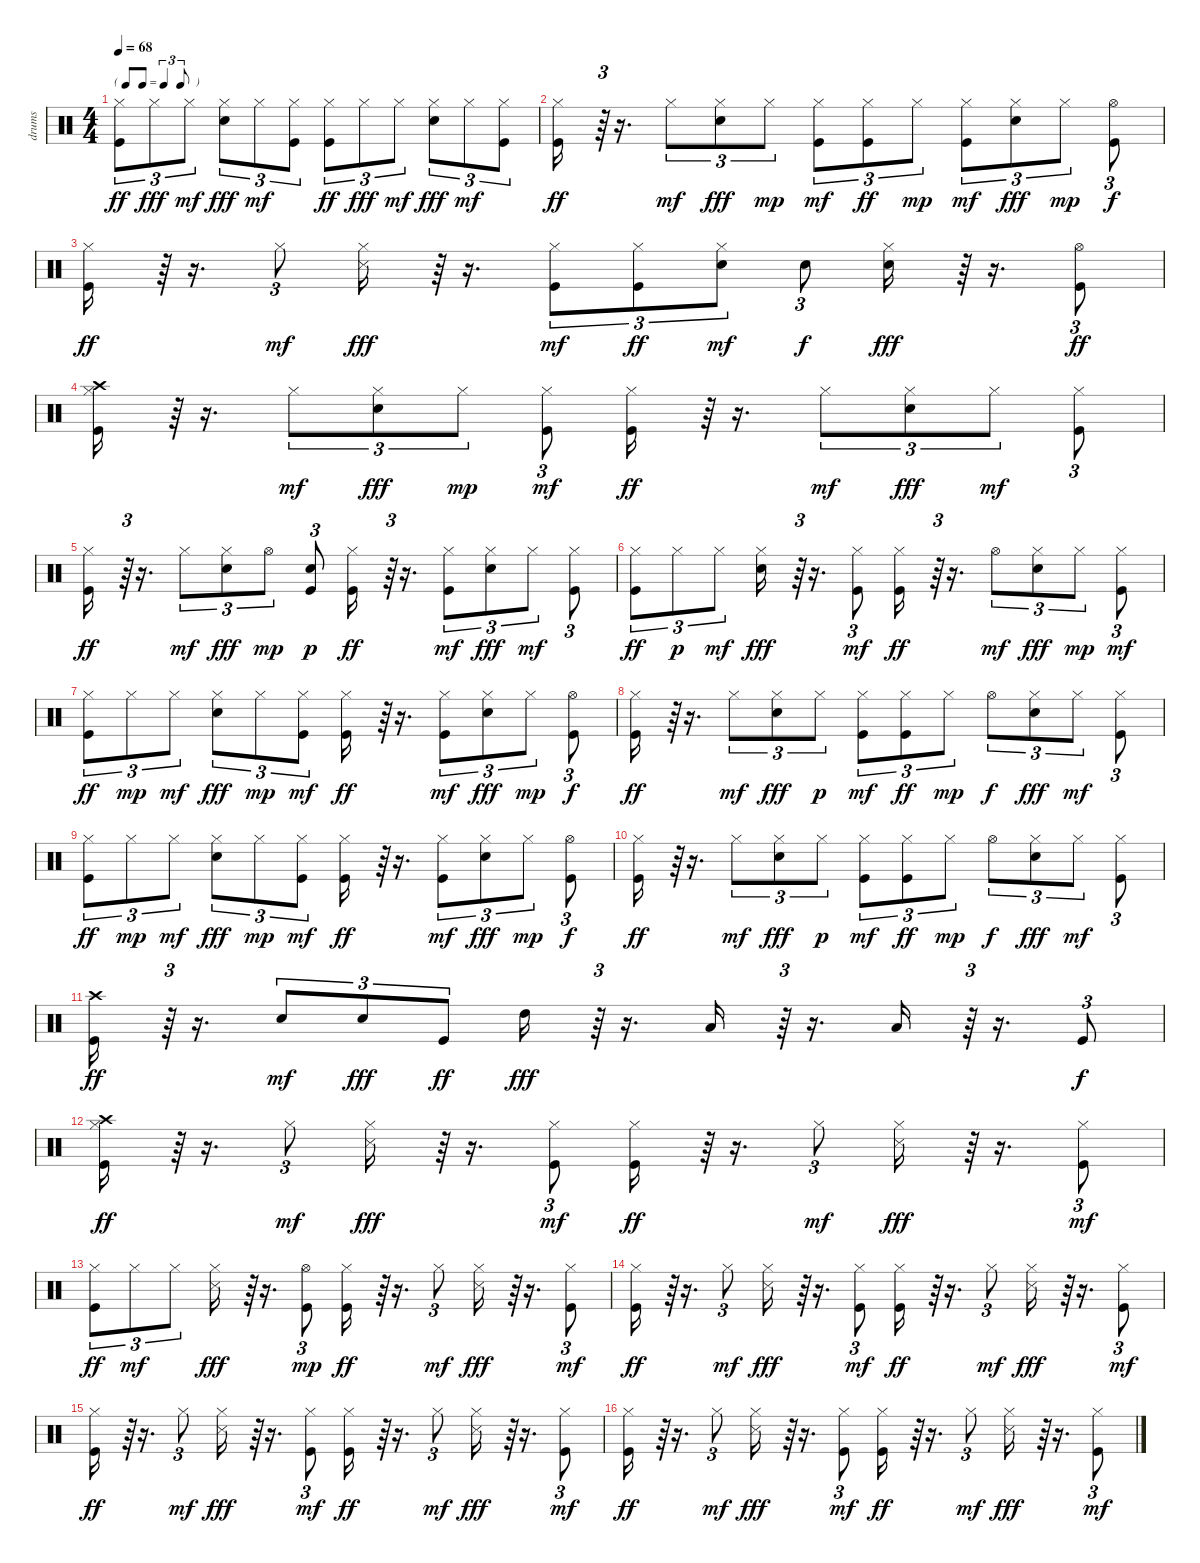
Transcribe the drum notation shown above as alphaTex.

\track ("drums" "drums") {instrument percussion}
\staff {score}
\articulation defaults
\ts (4 4)
\tf triplet8th
\tempo 68
\clef neutral
\ks c
("Kick (hit)" "Hi-Hat (closed)").8{tu (3 2) dy ff} "Hi-Hat (closed)".8{tu (3 2) dy fff} "Hi-Hat (closed)".8{tu (3 2) dy mf} ("Snare (hit) 2" "Hi-Hat (closed)").8{tu (3 2) dy fff} "Hi-Hat (closed)".8{tu (3 2) dy mf} ("Kick (hit)" "Hi-Hat (closed)").8{tu (3 2)} ("Kick (hit)" "Hi-Hat (closed)").8{tu (3 2) dy ff} "Hi-Hat (closed)".8{tu (3 2) dy fff} "Hi-Hat (closed)".8{tu (3 2) dy mf} ("Snare (hit) 2" "Hi-Hat (closed)").8{tu (3 2) dy fff} "Hi-Hat (closed)".8{tu (3 2) dy mf} ("Kick (hit)" "Hi-Hat (closed)").8{tu (3 2)} |
("Kick (hit)" "Hi-Hat (closed)").16{dy ff} r.64{tu (3 2)} r.16{d} "Hi-Hat (closed)".8{tu (3 2) dy mf} ("Snare (hit) 2" "Hi-Hat (closed)").8{tu (3 2) dy fff} "Hi-Hat (closed)".8{tu (3 2) dy mp} ("Kick (hit)" "Hi-Hat (closed)").8{tu (3 2) dy mf} ("Kick (hit)" "Hi-Hat (closed)").8{tu (3 2) dy ff} "Hi-Hat (closed)".8{tu (3 2) dy mp} ("Kick (hit)" "Hi-Hat (closed)").8{tu (3 2) dy mf} ("Snare (hit) 2" "Hi-Hat (closed)").8{tu (3 2) dy fff} "Hi-Hat (closed)".8{tu (3 2) dy mp} ("Kick (hit)" "Hi-Hat (open)").8{tu (3 2) dy f} |
("Kick (hit)" "Hi-Hat (closed)").16{dy ff} r.64{tu (3 2)} r.16{d} "Hi-Hat (closed)".8{tu (3 2) dy mf} ("Hi-Hat (closed)" "Snare (side stick) 3").16{dy fff} r.64{tu (3 2)} r.16{d} ("Kick (hit)" "Hi-Hat (closed)").8{tu (3 2) dy mf} ("Kick (hit)" "Hi-Hat (closed)").8{tu (3 2) dy ff} ("Snare (hit) 2" "Hi-Hat (closed)").8{tu (3 2) dy mf} "Snare (hit) 2".8{tu (3 2) dy f} ("Snare (hit) 2" "Hi-Hat (closed)").16{dy fff} r.64{tu (3 2)} r.16{d} ("Kick (hit)" "Hi-Hat (open)").8{tu (3 2) dy ff} |
("Kick (hit)" "Hi-Hat (closed)" "Crash high (hit)").16 r.64{tu (3 2)} r.16{d} "Hi-Hat (closed)".8{tu (3 2) dy mf} ("Snare (hit) 2" "Hi-Hat (closed)").8{tu (3 2) dy fff} "Hi-Hat (closed)".8{tu (3 2) dy mp} ("Kick (hit)" "Hi-Hat (closed)").8{tu (3 2) dy mf} ("Kick (hit)" "Hi-Hat (closed)").16{dy ff} r.64{tu (3 2)} r.16{d} "Hi-Hat (closed)".8{tu (3 2) dy mf} ("Snare (hit) 2" "Hi-Hat (closed)").8{tu (3 2) dy fff} "Hi-Hat (closed)".8{tu (3 2) dy mf} ("Kick (hit)" "Hi-Hat (closed)").8{tu (3 2)} |
("Kick (hit)" "Hi-Hat (closed)").16{dy ff} r.64{tu (3 2)} r.16{d} "Hi-Hat (closed)".8{tu (3 2) dy mf} ("Snare (hit) 2" "Hi-Hat (closed)").8{tu (3 2) dy fff} "Hi-Hat (open)".8{tu (3 2) dy mp} ("Kick (hit)" "Snare (hit) 2").8{tu (3 2) dy p} ("Kick (hit)" "Hi-Hat (closed)").16{dy ff} r.64{tu (3 2)} r.16{d} ("Kick (hit)" "Hi-Hat (closed)").8{tu (3 2) dy mf} ("Snare (hit) 2" "Hi-Hat (closed)").8{tu (3 2) dy fff} "Hi-Hat (closed)".8{tu (3 2) dy mf} ("Kick (hit)" "Hi-Hat (closed)").8{tu (3 2)} |
("Kick (hit)" "Hi-Hat (closed)").8{tu (3 2) dy ff} "Hi-Hat (closed)".8{tu (3 2) dy p} "Hi-Hat (closed)".8{tu (3 2) dy mf} ("Snare (hit) 2" "Hi-Hat (closed)").16{dy fff} r.64{tu (3 2)} r.16{d} ("Kick (hit)" "Hi-Hat (closed)").8{tu (3 2) dy mf} ("Kick (hit)" "Hi-Hat (closed)").16{dy ff} r.64{tu (3 2)} r.16{d} "Hi-Hat (open)".8{tu (3 2) dy mf} ("Snare (hit) 2" "Hi-Hat (closed)").8{tu (3 2) dy fff} "Hi-Hat (closed)".8{tu (3 2) dy mp} ("Kick (hit)" "Hi-Hat (closed)").8{tu (3 2) dy mf} |
("Kick (hit)" "Hi-Hat (closed)").8{tu (3 2) dy ff} "Hi-Hat (closed)".8{tu (3 2) dy mp} "Hi-Hat (closed)".8{tu (3 2) dy mf} ("Snare (hit) 2" "Hi-Hat (closed)").8{tu (3 2) dy fff} "Hi-Hat (closed)".8{tu (3 2) dy mp} ("Kick (hit)" "Hi-Hat (closed)").8{tu (3 2) dy mf} ("Kick (hit)" "Hi-Hat (closed)").16{dy ff} r.64{tu (3 2)} r.16{d} ("Kick (hit)" "Hi-Hat (closed)").8{tu (3 2) dy mf} ("Snare (hit) 2" "Hi-Hat (closed)").8{tu (3 2) dy fff} "Hi-Hat (closed)".8{tu (3 2) dy mp} ("Kick (hit)" "Hi-Hat (open)").8{tu (3 2) dy f} |
("Kick (hit)" "Hi-Hat (closed)").16{dy ff} r.64{tu (3 2)} r.16{d} "Hi-Hat (closed)".8{tu (3 2) dy mf} ("Snare (hit) 2" "Hi-Hat (closed)").8{tu (3 2) dy fff} "Hi-Hat (closed)".8{tu (3 2) dy p} ("Kick (hit)" "Hi-Hat (closed)").8{tu (3 2) dy mf} ("Kick (hit)" "Hi-Hat (closed)").8{tu (3 2) dy ff} "Hi-Hat (closed)".8{tu (3 2) dy mp} "Hi-Hat (open)".8{tu (3 2) dy f} ("Snare (hit) 2" "Hi-Hat (closed)").8{tu (3 2) dy fff} "Hi-Hat (closed)".8{tu (3 2) dy mf} ("Kick (hit)" "Hi-Hat (closed)").8{tu (3 2)} |
("Kick (hit)" "Hi-Hat (closed)").8{tu (3 2) dy ff} "Hi-Hat (closed)".8{tu (3 2) dy mp} "Hi-Hat (closed)".8{tu (3 2) dy mf} ("Snare (hit) 2" "Hi-Hat (closed)").8{tu (3 2) dy fff} "Hi-Hat (closed)".8{tu (3 2) dy mp} ("Kick (hit)" "Hi-Hat (closed)").8{tu (3 2) dy mf} ("Kick (hit)" "Hi-Hat (closed)").16{dy ff} r.64{tu (3 2)} r.16{d} ("Kick (hit)" "Hi-Hat (closed)").8{tu (3 2) dy mf} ("Snare (hit) 2" "Hi-Hat (closed)").8{tu (3 2) dy fff} "Hi-Hat (closed)".8{tu (3 2) dy mp} ("Kick (hit)" "Hi-Hat (open)").8{tu (3 2) dy f} |
("Kick (hit)" "Hi-Hat (closed)").16{dy ff} r.64{tu (3 2)} r.16{d} "Hi-Hat (closed)".8{tu (3 2) dy mf} ("Snare (hit) 2" "Hi-Hat (closed)").8{tu (3 2) dy fff} "Hi-Hat (closed)".8{tu (3 2) dy p} ("Kick (hit)" "Hi-Hat (closed)").8{tu (3 2) dy mf} ("Kick (hit)" "Hi-Hat (closed)").8{tu (3 2) dy ff} "Hi-Hat (closed)".8{tu (3 2) dy mp} "Hi-Hat (open)".8{tu (3 2) dy f} ("Snare (hit) 2" "Hi-Hat (closed)").8{tu (3 2) dy fff} "Hi-Hat (closed)".8{tu (3 2) dy mf} ("Kick (hit)" "Hi-Hat (closed)").8{tu (3 2)} |
("Kick (hit)" "Crash high (hit)").16{dy ff} r.64{tu (3 2)} r.16{d} "Snare (hit) 2".8{tu (3 2) dy mf} "Snare (hit) 2".8{tu (3 2) dy fff} "Kick (hit)".8{tu (3 2) dy ff} "High Tom (hit)".16{dy fff} r.64{tu (3 2)} r.16{d} "Low Tom (hit)".16 r.64{tu (3 2)} r.16{d} "Low Floor Tom (hit)".16 r.64{tu (3 2)} r.16{d} "Kick (hit)".8{tu (3 2) dy f} |
("Kick (hit)" "Hi-Hat (closed)" "Crash high (hit)").16{dy ff} r.64{tu (3 2)} r.16{d} "Hi-Hat (closed)".8{tu (3 2) dy mf} ("Hi-Hat (closed)" "Snare (side stick) 3").16{dy fff} r.64{tu (3 2)} r.16{d} ("Kick (hit)" "Hi-Hat (closed)").8{tu (3 2) dy mf} ("Kick (hit)" "Hi-Hat (closed)").16{dy ff} r.64{tu (3 2)} r.16{d} "Hi-Hat (closed)".8{tu (3 2) dy mf} ("Hi-Hat (closed)" "Snare (side stick) 3").16{dy fff} r.64{tu (3 2)} r.16{d} ("Kick (hit)" "Hi-Hat (closed)").8{tu (3 2) dy mf} |
("Kick (hit)" "Hi-Hat (closed)").8{tu (3 2) dy ff} "Hi-Hat (closed)".8{tu (3 2) dy mf} "Hi-Hat (closed)".8{tu (3 2)} ("Hi-Hat (closed)" "Snare (side stick) 3").16{dy fff} r.64{tu (3 2)} r.16{d} ("Kick (hit)" "Hi-Hat (open)").8{tu (3 2) dy mp} ("Kick (hit)" "Hi-Hat (closed)").16{dy ff} r.64{tu (3 2)} r.16{d} "Hi-Hat (closed)".8{tu (3 2) dy mf} ("Hi-Hat (closed)" "Snare (side stick) 3").16{dy fff} r.64{tu (3 2)} r.16{d} ("Kick (hit)" "Hi-Hat (closed)").8{tu (3 2) dy mf} |
("Kick (hit)" "Hi-Hat (closed)").16{dy ff} r.64{tu (3 2)} r.16{d} "Hi-Hat (closed)".8{tu (3 2) dy mf} ("Hi-Hat (closed)" "Snare (side stick) 3").16{dy fff} r.64{tu (3 2)} r.16{d} ("Kick (hit)" "Hi-Hat (closed)").8{tu (3 2) dy mf} ("Kick (hit)" "Hi-Hat (closed)").16{dy ff} r.64{tu (3 2)} r.16{d} "Hi-Hat (closed)".8{tu (3 2) dy mf} ("Hi-Hat (closed)" "Snare (side stick) 3").16{dy fff} r.64{tu (3 2)} r.16{d} ("Kick (hit)" "Hi-Hat (closed)").8{tu (3 2) dy mf} |
("Kick (hit)" "Hi-Hat (closed)").16{dy ff} r.64{tu (3 2)} r.16{d} "Hi-Hat (closed)".8{tu (3 2) dy mf} ("Hi-Hat (closed)" "Snare (side stick) 3").16{dy fff} r.64{tu (3 2)} r.16{d} ("Kick (hit)" "Hi-Hat (closed)").8{tu (3 2) dy mf} ("Kick (hit)" "Hi-Hat (closed)").16{dy ff} r.64{tu (3 2)} r.16{d} "Hi-Hat (closed)".8{tu (3 2) dy mf} ("Hi-Hat (closed)" "Snare (side stick) 3").16{dy fff} r.64{tu (3 2)} r.16{d} ("Kick (hit)" "Hi-Hat (closed)").8{tu (3 2) dy mf} |
("Kick (hit)" "Hi-Hat (closed)").16{dy ff} r.64{tu (3 2)} r.16{d} "Hi-Hat (closed)".8{tu (3 2) dy mf} ("Hi-Hat (closed)" "Snare (side stick) 3").16{dy fff} r.64{tu (3 2)} r.16{d} ("Kick (hit)" "Hi-Hat (closed)").8{tu (3 2) dy mf} ("Kick (hit)" "Hi-Hat (closed)").16{dy ff} r.64{tu (3 2)} r.16{d} "Hi-Hat (closed)".8{tu (3 2) dy mf} ("Hi-Hat (closed)" "Snare (side stick) 3").16{dy fff} r.64{tu (3 2)} r.16{d} ("Kick (hit)" "Hi-Hat (closed)").8{tu (3 2) dy mf}
